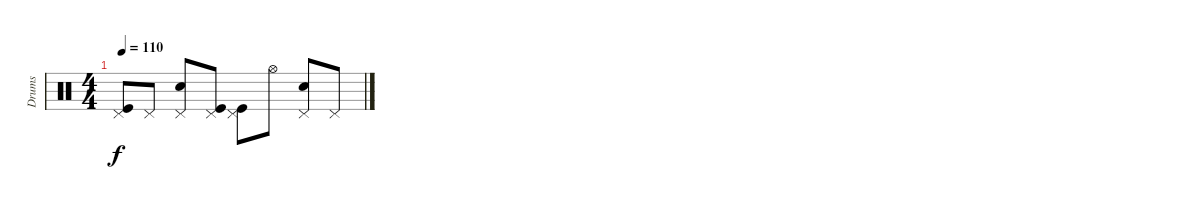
\track ("Drums" "Drums") {instrument percussion}
\staff {score}
\articulation defaults
\ts (4 4)
\tempo 110
\clef neutral
\ks c
("Pedal Hi-Hat (hit)" "Kick (hit)").8{dy f volume 0} "Pedal Hi-Hat (hit)".8 ("Pedal Hi-Hat (hit)" "Snare (hit) 2").8 ("Pedal Hi-Hat (hit)" "Kick (hit)").8 ("Pedal Hi-Hat (hit)" "Kick (hit)").8 "Hi-Hat (open)".8 ("Pedal Hi-Hat (hit)" "Snare (hit) 2").8 "Pedal Hi-Hat (hit)".8
